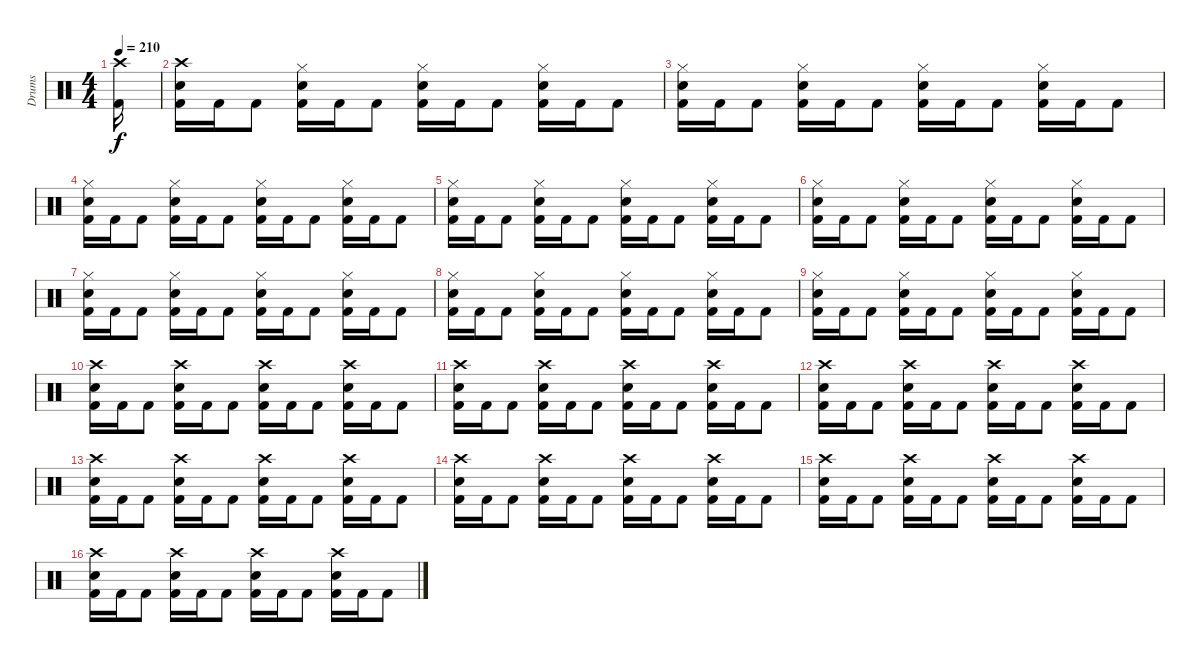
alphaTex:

\track ("Drums" "Drums") {instrument percussion}
\staff {score}
\articulation defaults
\ts (4 4)
\tempo 210
\clef neutral
\ks c
("Crash high (hit)" "Kick (hit) 2").16{dy f} |
("Crash high (hit)" "Electric Snare (hit)" "Kick (hit) 2").16 "Kick (hit) 2".16 "Kick (hit) 2".8 ("Hi-Hat (closed)" "Electric Snare (hit)" "Kick (hit) 2").16 "Kick (hit) 2".16 "Kick (hit) 2".8 ("Hi-Hat (closed)" "Electric Snare (hit)" "Kick (hit) 2").16 "Kick (hit) 2".16 "Kick (hit) 2".8 ("Hi-Hat (closed)" "Electric Snare (hit)" "Kick (hit) 2").16 "Kick (hit) 2".16 "Kick (hit) 2".8 |
("Hi-Hat (closed)" "Electric Snare (hit)" "Kick (hit) 2").16 "Kick (hit) 2".16 "Kick (hit) 2".8 ("Hi-Hat (closed)" "Electric Snare (hit)" "Kick (hit) 2").16 "Kick (hit) 2".16 "Kick (hit) 2".8 ("Hi-Hat (closed)" "Electric Snare (hit)" "Kick (hit) 2").16 "Kick (hit) 2".16 "Kick (hit) 2".8 ("Hi-Hat (closed)" "Electric Snare (hit)" "Kick (hit) 2").16 "Kick (hit) 2".16 "Kick (hit) 2".8 |
("Hi-Hat (closed)" "Electric Snare (hit)" "Kick (hit) 2").16 "Kick (hit) 2".16 "Kick (hit) 2".8 ("Hi-Hat (closed)" "Electric Snare (hit)" "Kick (hit) 2").16 "Kick (hit) 2".16 "Kick (hit) 2".8 ("Hi-Hat (closed)" "Electric Snare (hit)" "Kick (hit) 2").16 "Kick (hit) 2".16 "Kick (hit) 2".8 ("Hi-Hat (closed)" "Electric Snare (hit)" "Kick (hit) 2").16 "Kick (hit) 2".16 "Kick (hit) 2".8 |
("Hi-Hat (closed)" "Electric Snare (hit)" "Kick (hit) 2").16 "Kick (hit) 2".16 "Kick (hit) 2".8 ("Hi-Hat (closed)" "Electric Snare (hit)" "Kick (hit) 2").16 "Kick (hit) 2".16 "Kick (hit) 2".8 ("Hi-Hat (closed)" "Electric Snare (hit)" "Kick (hit) 2").16 "Kick (hit) 2".16 "Kick (hit) 2".8 ("Hi-Hat (closed)" "Electric Snare (hit)" "Kick (hit) 2").16 "Kick (hit) 2".16 "Kick (hit) 2".8 |
("Hi-Hat (closed)" "Electric Snare (hit)" "Kick (hit) 2").16 "Kick (hit) 2".16 "Kick (hit) 2".8 ("Hi-Hat (closed)" "Electric Snare (hit)" "Kick (hit) 2").16 "Kick (hit) 2".16 "Kick (hit) 2".8 ("Hi-Hat (closed)" "Electric Snare (hit)" "Kick (hit) 2").16 "Kick (hit) 2".16 "Kick (hit) 2".8 ("Hi-Hat (closed)" "Electric Snare (hit)" "Kick (hit) 2").16 "Kick (hit) 2".16 "Kick (hit) 2".8 |
("Hi-Hat (closed)" "Electric Snare (hit)" "Kick (hit) 2").16 "Kick (hit) 2".16 "Kick (hit) 2".8 ("Hi-Hat (closed)" "Electric Snare (hit)" "Kick (hit) 2").16 "Kick (hit) 2".16 "Kick (hit) 2".8 ("Hi-Hat (closed)" "Electric Snare (hit)" "Kick (hit) 2").16 "Kick (hit) 2".16 "Kick (hit) 2".8 ("Hi-Hat (closed)" "Electric Snare (hit)" "Kick (hit) 2").16 "Kick (hit) 2".16 "Kick (hit) 2".8 |
("Hi-Hat (closed)" "Electric Snare (hit)" "Kick (hit) 2").16 "Kick (hit) 2".16 "Kick (hit) 2".8 ("Hi-Hat (closed)" "Electric Snare (hit)" "Kick (hit) 2").16 "Kick (hit) 2".16 "Kick (hit) 2".8 ("Hi-Hat (closed)" "Electric Snare (hit)" "Kick (hit) 2").16 "Kick (hit) 2".16 "Kick (hit) 2".8 ("Hi-Hat (closed)" "Electric Snare (hit)" "Kick (hit) 2").16 "Kick (hit) 2".16 "Kick (hit) 2".8 |
("Hi-Hat (closed)" "Electric Snare (hit)" "Kick (hit) 2").16 "Kick (hit) 2".16 "Kick (hit) 2".8 ("Hi-Hat (closed)" "Electric Snare (hit)" "Kick (hit) 2").16 "Kick (hit) 2".16 "Kick (hit) 2".8 ("Hi-Hat (closed)" "Electric Snare (hit)" "Kick (hit) 2").16 "Kick (hit) 2".16 "Kick (hit) 2".8 ("Hi-Hat (closed)" "Electric Snare (hit)" "Kick (hit) 2").16 "Kick (hit) 2".16 "Kick (hit) 2".8 |
("Crash high (hit)" "Electric Snare (hit)" "Kick (hit) 2").16 "Kick (hit) 2".16 "Kick (hit) 2".8 ("Crash high (hit)" "Electric Snare (hit)" "Kick (hit) 2").16 "Kick (hit) 2".16 "Kick (hit) 2".8 ("Crash high (hit)" "Electric Snare (hit)" "Kick (hit) 2").16 "Kick (hit) 2".16 "Kick (hit) 2".8 ("Crash high (hit)" "Electric Snare (hit)" "Kick (hit) 2").16 "Kick (hit) 2".16 "Kick (hit) 2".8 |
("Crash high (hit)" "Electric Snare (hit)" "Kick (hit) 2").16 "Kick (hit) 2".16 "Kick (hit) 2".8 ("Crash high (hit)" "Electric Snare (hit)" "Kick (hit) 2").16 "Kick (hit) 2".16 "Kick (hit) 2".8 ("Crash high (hit)" "Electric Snare (hit)" "Kick (hit) 2").16 "Kick (hit) 2".16 "Kick (hit) 2".8 ("Crash high (hit)" "Electric Snare (hit)" "Kick (hit) 2").16 "Kick (hit) 2".16 "Kick (hit) 2".8 |
("Crash high (hit)" "Electric Snare (hit)" "Kick (hit) 2").16 "Kick (hit) 2".16 "Kick (hit) 2".8 ("Crash high (hit)" "Electric Snare (hit)" "Kick (hit) 2").16 "Kick (hit) 2".16 "Kick (hit) 2".8 ("Crash high (hit)" "Electric Snare (hit)" "Kick (hit) 2").16 "Kick (hit) 2".16 "Kick (hit) 2".8 ("Crash high (hit)" "Electric Snare (hit)" "Kick (hit) 2").16 "Kick (hit) 2".16 "Kick (hit) 2".8 |
("Crash high (hit)" "Electric Snare (hit)" "Kick (hit) 2").16 "Kick (hit) 2".16 "Kick (hit) 2".8 ("Crash high (hit)" "Electric Snare (hit)" "Kick (hit) 2").16 "Kick (hit) 2".16 "Kick (hit) 2".8 ("Crash high (hit)" "Electric Snare (hit)" "Kick (hit) 2").16 "Kick (hit) 2".16 "Kick (hit) 2".8 ("Crash high (hit)" "Electric Snare (hit)" "Kick (hit) 2").16 "Kick (hit) 2".16 "Kick (hit) 2".8 |
("Crash high (hit)" "Electric Snare (hit)" "Kick (hit) 2").16 "Kick (hit) 2".16 "Kick (hit) 2".8 ("Crash high (hit)" "Electric Snare (hit)" "Kick (hit) 2").16 "Kick (hit) 2".16 "Kick (hit) 2".8 ("Crash high (hit)" "Electric Snare (hit)" "Kick (hit) 2").16 "Kick (hit) 2".16 "Kick (hit) 2".8 ("Crash high (hit)" "Electric Snare (hit)" "Kick (hit) 2").16 "Kick (hit) 2".16 "Kick (hit) 2".8 |
("Crash high (hit)" "Electric Snare (hit)" "Kick (hit) 2").16 "Kick (hit) 2".16 "Kick (hit) 2".8 ("Crash high (hit)" "Electric Snare (hit)" "Kick (hit) 2").16 "Kick (hit) 2".16 "Kick (hit) 2".8 ("Crash high (hit)" "Electric Snare (hit)" "Kick (hit) 2").16 "Kick (hit) 2".16 "Kick (hit) 2".8 ("Crash high (hit)" "Electric Snare (hit)" "Kick (hit) 2").16 "Kick (hit) 2".16 "Kick (hit) 2".8 |
("Crash high (hit)" "Electric Snare (hit)" "Kick (hit) 2").16 "Kick (hit) 2".16 "Kick (hit) 2".8 ("Crash high (hit)" "Electric Snare (hit)" "Kick (hit) 2").16 "Kick (hit) 2".16 "Kick (hit) 2".8 ("Crash high (hit)" "Electric Snare (hit)" "Kick (hit) 2").16 "Kick (hit) 2".16 "Kick (hit) 2".8 ("Crash high (hit)" "Electric Snare (hit)" "Kick (hit) 2").16 "Kick (hit) 2".16 "Kick (hit) 2".8
